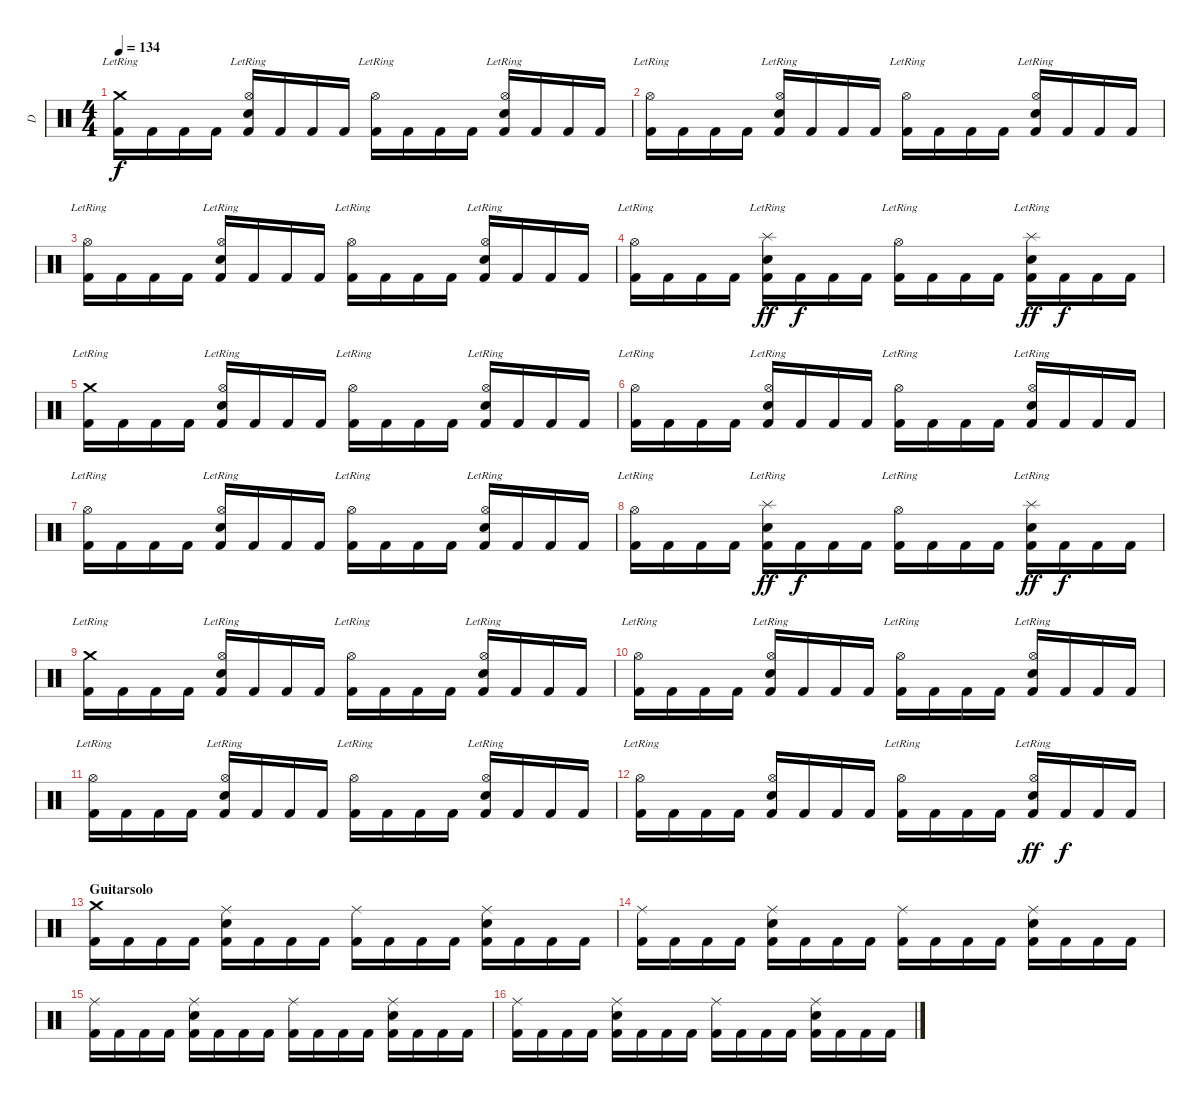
\track ("D" "D") {instrument percussion}
\staff {score}
\articulation defaults
\ts (4 4)
\tempo 134
\clef neutral
\ks c
("Crash medium (hit)"{lr} "Kick (hit) 2").16{dy f} "Kick (hit) 2".16 "Kick (hit) 2".16 "Kick (hit) 2".16 ("Hi-Hat (open)"{lr} "Snare (hit) 2" "Kick (hit) 2").16 "Kick (hit) 2".16 "Kick (hit) 2".16 "Kick (hit) 2".16 ("Hi-Hat (open)"{lr} "Kick (hit) 2").16 "Kick (hit) 2".16 "Kick (hit) 2".16 "Kick (hit) 2".16 ("Hi-Hat (open)"{lr} "Snare (hit) 2" "Kick (hit) 2").16 "Kick (hit) 2".16 "Kick (hit) 2".16 "Kick (hit) 2".16 |
("Hi-Hat (open)"{lr} "Kick (hit) 2").16 "Kick (hit) 2".16 "Kick (hit) 2".16 "Kick (hit) 2".16 ("Hi-Hat (open)"{lr} "Snare (hit) 2" "Kick (hit) 2").16 "Kick (hit) 2".16 "Kick (hit) 2".16 "Kick (hit) 2".16 ("Hi-Hat (open)"{lr} "Kick (hit) 2").16 "Kick (hit) 2".16 "Kick (hit) 2".16 "Kick (hit) 2".16 ("Hi-Hat (open)"{lr} "Snare (hit) 2" "Kick (hit) 2").16 "Kick (hit) 2".16 "Kick (hit) 2".16 "Kick (hit) 2".16 |
("Hi-Hat (open)"{lr} "Kick (hit) 2").16 "Kick (hit) 2".16 "Kick (hit) 2".16 "Kick (hit) 2".16 ("Hi-Hat (open)"{lr} "Snare (hit) 2" "Kick (hit) 2").16 "Kick (hit) 2".16 "Kick (hit) 2".16 "Kick (hit) 2".16 ("Hi-Hat (open)"{lr} "Kick (hit) 2").16 "Kick (hit) 2".16 "Kick (hit) 2".16 "Kick (hit) 2".16 ("Hi-Hat (open)"{lr} "Snare (hit) 2" "Kick (hit) 2").16 "Kick (hit) 2".16 "Kick (hit) 2".16 "Kick (hit) 2".16 |
("Hi-Hat (open)"{lr} "Kick (hit) 2").16 "Kick (hit) 2".16 "Kick (hit) 2".16 "Kick (hit) 2".16 ("Snare (hit) 2" "Splash (hit)"{lr} "Kick (hit) 2").16{dy ff} "Kick (hit) 2".16{dy f} "Kick (hit) 2".16 "Kick (hit) 2".16 ("Hi-Hat (open)"{lr} "Kick (hit) 2").16 "Kick (hit) 2".16 "Kick (hit) 2".16 "Kick (hit) 2".16 ("Snare (hit) 2" "Splash (hit)"{lr} "Kick (hit) 2").16{dy ff} "Kick (hit) 2".16{dy f} "Kick (hit) 2".16 "Kick (hit) 2".16 |
("Crash medium (hit)"{lr} "Kick (hit) 2").16 "Kick (hit) 2".16 "Kick (hit) 2".16 "Kick (hit) 2".16 ("Hi-Hat (open)"{lr} "Snare (hit) 2" "Kick (hit) 2").16 "Kick (hit) 2".16 "Kick (hit) 2".16 "Kick (hit) 2".16 ("Hi-Hat (open)"{lr} "Kick (hit) 2").16 "Kick (hit) 2".16 "Kick (hit) 2".16 "Kick (hit) 2".16 ("Hi-Hat (open)"{lr} "Snare (hit) 2" "Kick (hit) 2").16 "Kick (hit) 2".16 "Kick (hit) 2".16 "Kick (hit) 2".16 |
("Hi-Hat (open)"{lr} "Kick (hit) 2").16 "Kick (hit) 2".16 "Kick (hit) 2".16 "Kick (hit) 2".16 ("Hi-Hat (open)"{lr} "Snare (hit) 2" "Kick (hit) 2").16 "Kick (hit) 2".16 "Kick (hit) 2".16 "Kick (hit) 2".16 ("Hi-Hat (open)"{lr} "Kick (hit) 2").16 "Kick (hit) 2".16 "Kick (hit) 2".16 "Kick (hit) 2".16 ("Hi-Hat (open)"{lr} "Snare (hit) 2" "Kick (hit) 2").16 "Kick (hit) 2".16 "Kick (hit) 2".16 "Kick (hit) 2".16 |
("Hi-Hat (open)"{lr} "Kick (hit) 2").16 "Kick (hit) 2".16 "Kick (hit) 2".16 "Kick (hit) 2".16 ("Hi-Hat (open)"{lr} "Snare (hit) 2" "Kick (hit) 2").16 "Kick (hit) 2".16 "Kick (hit) 2".16 "Kick (hit) 2".16 ("Hi-Hat (open)"{lr} "Kick (hit) 2").16 "Kick (hit) 2".16 "Kick (hit) 2".16 "Kick (hit) 2".16 ("Hi-Hat (open)"{lr} "Snare (hit) 2" "Kick (hit) 2").16 "Kick (hit) 2".16 "Kick (hit) 2".16 "Kick (hit) 2".16 |
("Hi-Hat (open)"{lr} "Kick (hit) 2").16 "Kick (hit) 2".16 "Kick (hit) 2".16 "Kick (hit) 2".16 ("Snare (hit) 2" "Splash (hit)"{lr} "Kick (hit) 2").16{dy ff} "Kick (hit) 2".16{dy f} "Kick (hit) 2".16 "Kick (hit) 2".16 ("Hi-Hat (open)"{lr} "Kick (hit) 2").16 "Kick (hit) 2".16 "Kick (hit) 2".16 "Kick (hit) 2".16 ("Snare (hit) 2" "Splash (hit)"{lr} "Kick (hit) 2").16{dy ff} "Kick (hit) 2".16{dy f} "Kick (hit) 2".16 "Kick (hit) 2".16 |
("Crash medium (hit)"{lr} "Kick (hit) 2").16 "Kick (hit) 2".16 "Kick (hit) 2".16 "Kick (hit) 2".16 ("Hi-Hat (open)"{lr} "Snare (hit) 2" "Kick (hit) 2").16 "Kick (hit) 2".16 "Kick (hit) 2".16 "Kick (hit) 2".16 ("Hi-Hat (open)"{lr} "Kick (hit) 2").16 "Kick (hit) 2".16 "Kick (hit) 2".16 "Kick (hit) 2".16 ("Hi-Hat (open)"{lr} "Snare (hit) 2" "Kick (hit) 2").16 "Kick (hit) 2".16 "Kick (hit) 2".16 "Kick (hit) 2".16 |
("Hi-Hat (open)"{lr} "Kick (hit) 2").16 "Kick (hit) 2".16 "Kick (hit) 2".16 "Kick (hit) 2".16 ("Hi-Hat (open)"{lr} "Snare (hit) 2" "Kick (hit) 2").16 "Kick (hit) 2".16 "Kick (hit) 2".16 "Kick (hit) 2".16 ("Hi-Hat (open)"{lr} "Kick (hit) 2").16 "Kick (hit) 2".16 "Kick (hit) 2".16 "Kick (hit) 2".16 ("Hi-Hat (open)"{lr} "Snare (hit) 2" "Kick (hit) 2").16 "Kick (hit) 2".16 "Kick (hit) 2".16 "Kick (hit) 2".16 |
("Hi-Hat (open)"{lr} "Kick (hit) 2").16 "Kick (hit) 2".16 "Kick (hit) 2".16 "Kick (hit) 2".16 ("Hi-Hat (open)"{lr} "Snare (hit) 2" "Kick (hit) 2").16 "Kick (hit) 2".16 "Kick (hit) 2".16 "Kick (hit) 2".16 ("Hi-Hat (open)"{lr} "Kick (hit) 2").16 "Kick (hit) 2".16 "Kick (hit) 2".16 "Kick (hit) 2".16 ("Hi-Hat (open)"{lr} "Snare (hit) 2" "Kick (hit) 2").16 "Kick (hit) 2".16 "Kick (hit) 2".16 "Kick (hit) 2".16 |
("Hi-Hat (open)"{lr} "Kick (hit) 2").16 "Kick (hit) 2".16 "Kick (hit) 2".16 "Kick (hit) 2".16 ("Hi-Hat (open)" "Snare (hit) 2" "Kick (hit) 2").16 "Kick (hit) 2".16 "Kick (hit) 2".16 "Kick (hit) 2".16 ("Hi-Hat (open)"{lr} "Kick (hit) 2").16 "Kick (hit) 2".16 "Kick (hit) 2".16 "Kick (hit) 2".16 ("Hi-Hat (open)" "Snare (hit) 2"{lr} "Kick (hit) 2").16{dy ff} "Kick (hit) 2".16{dy f} "Kick (hit) 2".16 "Kick (hit) 2".16 |
\section ("" "Guitarsolo")
("Crash medium (hit)" "Kick (hit) 2").16 "Kick (hit) 2".16 "Kick (hit) 2".16 "Kick (hit) 2".16 ("Ride (middle)" "Snare (hit) 2" "Kick (hit) 2").16 "Kick (hit) 2".16 "Kick (hit) 2".16 "Kick (hit) 2".16 ("Ride (middle)" "Kick (hit) 2").16 "Kick (hit) 2".16 "Kick (hit) 2".16 "Kick (hit) 2".16 ("Ride (middle)" "Snare (hit) 2" "Kick (hit) 2").16 "Kick (hit) 2".16 "Kick (hit) 2".16 "Kick (hit) 2".16 |
("Ride (middle)" "Kick (hit) 2").16 "Kick (hit) 2".16 "Kick (hit) 2".16 "Kick (hit) 2".16 ("Ride (middle)" "Snare (hit) 2" "Kick (hit) 2").16 "Kick (hit) 2".16 "Kick (hit) 2".16 "Kick (hit) 2".16 ("Ride (middle)" "Kick (hit) 2").16 "Kick (hit) 2".16 "Kick (hit) 2".16 "Kick (hit) 2".16 ("Ride (middle)" "Snare (hit) 2" "Kick (hit) 2").16 "Kick (hit) 2".16 "Kick (hit) 2".16 "Kick (hit) 2".16 |
("Ride (middle)" "Kick (hit) 2").16 "Kick (hit) 2".16 "Kick (hit) 2".16 "Kick (hit) 2".16 ("Ride (middle)" "Snare (hit) 2" "Kick (hit) 2").16 "Kick (hit) 2".16 "Kick (hit) 2".16 "Kick (hit) 2".16 ("Ride (middle)" "Kick (hit) 2").16 "Kick (hit) 2".16 "Kick (hit) 2".16 "Kick (hit) 2".16 ("Ride (middle)" "Snare (hit) 2" "Kick (hit) 2").16 "Kick (hit) 2".16 "Kick (hit) 2".16 "Kick (hit) 2".16 |
("Ride (middle)" "Kick (hit) 2").16 "Kick (hit) 2".16 "Kick (hit) 2".16 "Kick (hit) 2".16 ("Ride (middle)" "Snare (hit) 2" "Kick (hit) 2").16 "Kick (hit) 2".16 "Kick (hit) 2".16 "Kick (hit) 2".16 ("Ride (middle)" "Kick (hit) 2").16 "Kick (hit) 2".16 "Kick (hit) 2".16 "Kick (hit) 2".16 ("Ride (middle)" "Snare (hit) 2" "Kick (hit) 2").16 "Kick (hit) 2".16 "Kick (hit) 2".16 "Kick (hit) 2".16
